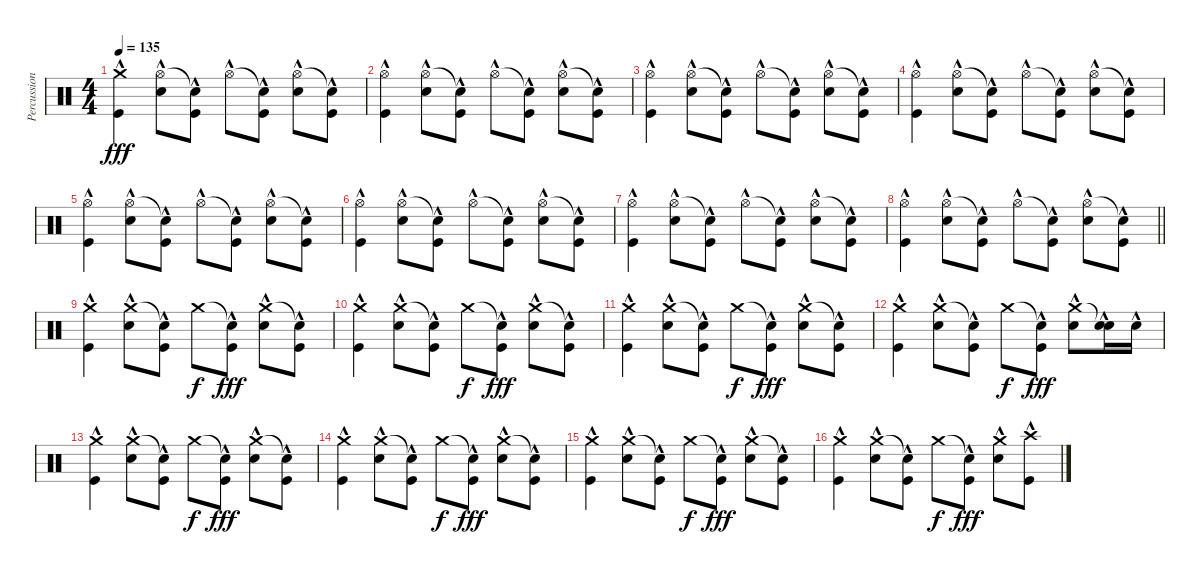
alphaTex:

\track ("Percussions" "Percussion") {instrument percussion}
\staff {score}
\articulation defaults
\ts (4 4)
\tempo 135
\clef neutral
\ks c
("Crash medium (hit)"{hac} "Kick (hit)"{hac}).4{dy fff} ("Hi-Hat (open)"{hac} "Electric Snare (hit)"{hac}).8 ("Snare (hit)"{t} "Kick (hit)"{hac}).8 "Hi-Hat (open)"{hac}.8 ("Snare (hit)"{t} "Kick (hit)"{hac}).8 ("Hi-Hat (open)"{hac} "Electric Snare (hit)"{hac}).8 ("Snare (hit)"{t} "Kick (hit)"{hac}).8 |
("Hi-Hat (open)"{hac} "Kick (hit)"{hac}).4 ("Hi-Hat (open)"{hac} "Electric Snare (hit)"{hac}).8 ("Snare (hit)"{t} "Kick (hit)"{hac}).8 "Hi-Hat (open)"{hac}.8 ("Snare (hit)"{t} "Kick (hit)"{hac}).8 ("Hi-Hat (open)"{hac} "Electric Snare (hit)"{hac}).8 ("Snare (hit)"{t} "Kick (hit)"{hac}).8 |
("Hi-Hat (open)"{hac} "Kick (hit)"{hac}).4 ("Hi-Hat (open)"{hac} "Electric Snare (hit)"{hac}).8 ("Snare (hit)"{t} "Kick (hit)"{hac}).8 "Hi-Hat (open)"{hac}.8 ("Snare (hit)"{t} "Kick (hit)"{hac}).8 ("Hi-Hat (open)"{hac} "Electric Snare (hit)"{hac}).8 ("Snare (hit)"{t} "Kick (hit)"{hac}).8 |
("Hi-Hat (open)"{hac} "Kick (hit)"{hac}).4 ("Hi-Hat (open)"{hac} "Electric Snare (hit)"{hac}).8 ("Snare (hit)"{t} "Kick (hit)"{hac}).8 "Hi-Hat (open)"{hac}.8 ("Snare (hit)"{t} "Kick (hit)"{hac}).8 ("Hi-Hat (open)"{hac} "Electric Snare (hit)"{hac}).8 ("Snare (hit)"{t} "Kick (hit)"{hac}).8 |
("Hi-Hat (open)"{hac} "Kick (hit)"{hac}).4 ("Hi-Hat (open)"{hac} "Electric Snare (hit)"{hac}).8 ("Snare (hit)"{t} "Kick (hit)"{hac}).8 "Hi-Hat (open)"{hac}.8 ("Snare (hit)"{t} "Kick (hit)"{hac}).8 ("Hi-Hat (open)"{hac} "Electric Snare (hit)"{hac}).8 ("Snare (hit)"{t} "Kick (hit)"{hac}).8 |
("Hi-Hat (open)"{hac} "Kick (hit)"{hac}).4 ("Hi-Hat (open)"{hac} "Electric Snare (hit)"{hac}).8 ("Snare (hit)"{t} "Kick (hit)"{hac}).8 "Hi-Hat (open)"{hac}.8 ("Snare (hit)"{t} "Kick (hit)"{hac}).8 ("Hi-Hat (open)"{hac} "Electric Snare (hit)"{hac}).8 ("Snare (hit)"{t} "Kick (hit)"{hac}).8 |
("Hi-Hat (open)"{hac} "Kick (hit)"{hac}).4 ("Hi-Hat (open)"{hac} "Electric Snare (hit)"{hac}).8 ("Snare (hit)"{t} "Kick (hit)"{hac}).8 "Hi-Hat (open)"{hac}.8 ("Snare (hit)"{t} "Kick (hit)"{hac}).8 ("Hi-Hat (open)"{hac} "Electric Snare (hit)"{hac}).8 ("Snare (hit)"{t} "Kick (hit)"{hac}).8 |
\barLineRight lightlight
("Hi-Hat (open)"{hac} "Kick (hit)"{hac}).4 ("Hi-Hat (open)"{hac} "Electric Snare (hit)"{hac}).8 ("Snare (hit)"{t} "Kick (hit)"{hac}).8 "Hi-Hat (open)"{hac}.8 ("Snare (hit)"{t} "Kick (hit)"{hac}).8 ("Hi-Hat (open)"{hac} "Electric Snare (hit)"{hac}).8 ("Snare (hit)"{t} "Kick (hit)"{hac}).8 |
("Crash medium (hit)"{hac} "Kick (hit)"{hac}).4 ("Crash medium (hit)" "Electric Snare (hit)"{hac}).8 ("Snare (hit)"{t} "Kick (hit)"{hac}).8 "Crash medium (hit)".8{dy f} ("Snare (hit)"{t} "Kick (hit)"{hac}).8{dy fff} ("Crash medium (hit)" "Electric Snare (hit)"{hac}).8 ("Snare (hit)"{t} "Kick (hit)"{hac}).8 |
("Crash medium (hit)" "Kick (hit)"{hac}).4 ("Crash medium (hit)" "Electric Snare (hit)"{hac}).8 ("Snare (hit)"{t} "Kick (hit)"{hac}).8 "Crash medium (hit)".8{dy f} ("Snare (hit)"{t} "Kick (hit)"{hac}).8{dy fff} ("Crash medium (hit)" "Electric Snare (hit)"{hac}).8 ("Snare (hit)"{t} "Kick (hit)"{hac}).8 |
("Crash medium (hit)" "Kick (hit)"{hac}).4 ("Crash medium (hit)" "Electric Snare (hit)"{hac}).8 ("Snare (hit)"{t} "Kick (hit)"{hac}).8 "Crash medium (hit)".8{dy f} ("Snare (hit)"{t} "Kick (hit)"{hac}).8{dy fff} ("Crash medium (hit)" "Electric Snare (hit)"{hac}).8 ("Snare (hit)"{t} "Kick (hit)"{hac}).8 |
("Crash medium (hit)" "Kick (hit)"{hac}).4 ("Crash medium (hit)" "Electric Snare (hit)"{hac}).8 ("Snare (hit)"{t} "Kick (hit)"{hac}).8 "Crash medium (hit)".8{dy f} ("Snare (hit)"{t} "Kick (hit)"{hac}).8{dy fff} ("Crash medium (hit)" "Electric Snare (hit)"{hac}).8 ("Snare (hit)"{t} "Electric Snare (hit)"{hac}).16 "Electric Snare (hit)"{hac}.16 |
("Crash medium (hit)"{hac} "Kick (hit)"{hac}).4 ("Crash medium (hit)" "Electric Snare (hit)"{hac}).8 ("Snare (hit)"{t} "Kick (hit)"{hac}).8 "Crash medium (hit)".8{dy f} ("Snare (hit)"{t} "Kick (hit)"{hac}).8{dy fff} ("Crash medium (hit)" "Electric Snare (hit)"{hac}).8 ("Snare (hit)"{t} "Kick (hit)"{hac}).8 |
("Crash medium (hit)" "Kick (hit)"{hac}).4 ("Crash medium (hit)" "Electric Snare (hit)"{hac}).8 ("Snare (hit)"{t} "Kick (hit)"{hac}).8 "Crash medium (hit)".8{dy f} ("Snare (hit)"{t} "Kick (hit)"{hac}).8{dy fff} ("Crash medium (hit)" "Electric Snare (hit)"{hac}).8 ("Snare (hit)"{t} "Kick (hit)"{hac}).8 |
("Crash medium (hit)" "Kick (hit)"{hac}).4 ("Crash medium (hit)" "Electric Snare (hit)"{hac}).8 ("Snare (hit)"{t} "Kick (hit)"{hac}).8 "Crash medium (hit)".8{dy f} ("Snare (hit)"{t} "Kick (hit)"{hac}).8{dy fff} ("Crash medium (hit)" "Electric Snare (hit)"{hac}).8 ("Snare (hit)"{t} "Kick (hit)"{hac}).8 |
("Crash medium (hit)" "Kick (hit)"{hac}).4 ("Crash medium (hit)" "Electric Snare (hit)"{hac}).8 ("Snare (hit)"{t} "Kick (hit)"{hac}).8 "Crash medium (hit)".8{dy f} ("Snare (hit)"{t} "Kick (hit)"{hac}).8{dy fff} ("Crash medium (hit)" "Electric Snare (hit)"{hac}).8 ("Crash high (hit)" "Kick (hit)"{hac}).8
